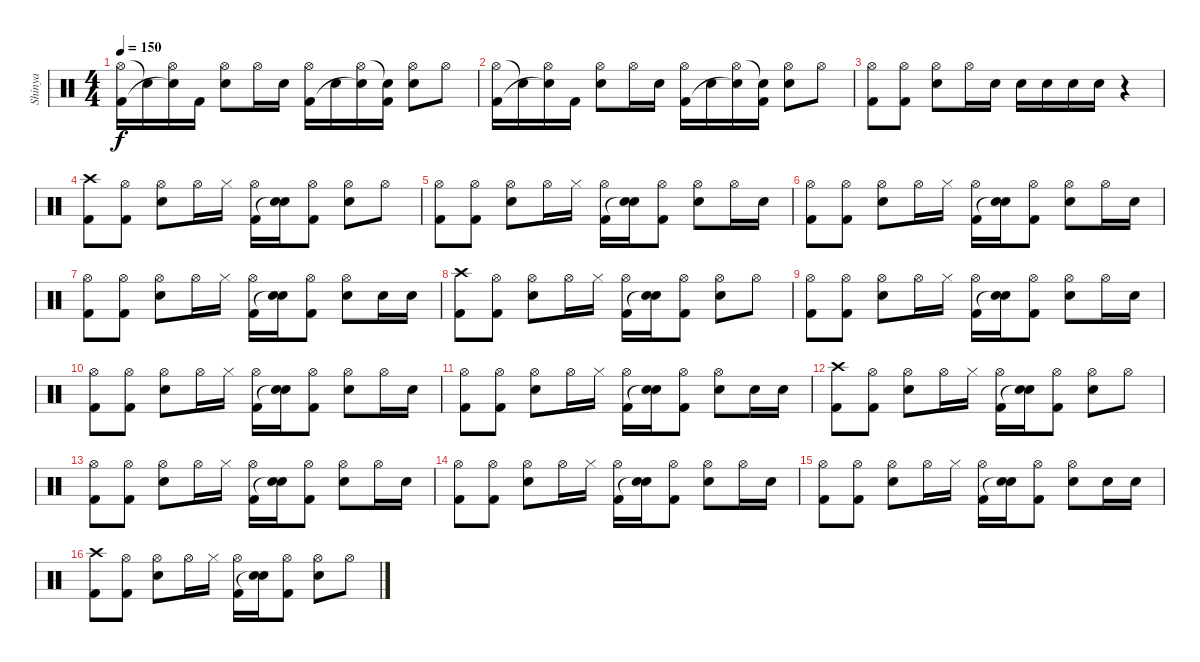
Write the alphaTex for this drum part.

\track ("Shinya" "Shinya") {instrument percussion}
\staff {score}
\articulation defaults
\ts (4 4)
\tempo 150
\clef neutral
\ks c
("Hi-Hat (open)" "Kick (hit) 2").16{dy f} "Snare (hit)"{t}.16 ("Hi-Hat (open)" "Snare (hit)"{t}).16 "Kick (hit) 2".16 ("Hi-Hat (open)" "Electric Snare (hit)").8 "Hi-Hat (open)".16 "Electric Snare (hit)".16 ("Hi-Hat (open)" "Kick (hit) 2").16 "Electric Snare (hit)".16 ("Hi-Hat (open)" "Snare (hit)"{t}).16 ("Snare (hit)"{t} "Kick (hit) 2").16 ("Hi-Hat (open)" "Electric Snare (hit)").8 "Hi-Hat (open)".8 |
("Hi-Hat (open)" "Kick (hit) 2").16 "Snare (hit)"{t}.16 ("Hi-Hat (open)" "Snare (hit)"{t}).16 "Kick (hit) 2".16 ("Hi-Hat (open)" "Electric Snare (hit)").8 "Hi-Hat (open)".16 "Electric Snare (hit)".16 ("Hi-Hat (open)" "Kick (hit) 2").16 "Electric Snare (hit)".16 ("Hi-Hat (open)" "Snare (hit)"{t}).16 ("Snare (hit)"{t} "Kick (hit) 2").16 ("Hi-Hat (open)" "Electric Snare (hit)").8 "Hi-Hat (open)".8 |
("Hi-Hat (open)" "Kick (hit) 2").8 ("Hi-Hat (open)" "Kick (hit) 2").8 ("Hi-Hat (open)" "Electric Snare (hit)").8 "Hi-Hat (open)".16 "Electric Snare (hit)".16 "Electric Snare (hit)".16 "Electric Snare (hit)".16 "Electric Snare (hit)".16 "Electric Snare (hit)".16 r.4 |
("Crash high (hit)" "Kick (hit) 2").8 ("Hi-Hat (open)" "Kick (hit) 2").8 ("Hi-Hat (open)" "Electric Snare (hit)").8 "Hi-Hat (open)".16 "Hi-Hat (closed)".16 ("Hi-Hat (open)" "Kick (hit) 2").16 ("Electric Snare (hit)" "Snare (hit)"{t}).16 ("Hi-Hat (open)" "Kick (hit) 2").8 ("Hi-Hat (open)" "Electric Snare (hit)").8 "Hi-Hat (open)".8 |
("Hi-Hat (open)" "Kick (hit) 2").8 ("Hi-Hat (open)" "Kick (hit) 2").8 ("Hi-Hat (open)" "Electric Snare (hit)").8 "Hi-Hat (open)".16 "Hi-Hat (closed)".16 ("Hi-Hat (open)" "Kick (hit) 2").16 ("Electric Snare (hit)" "Snare (hit)"{t}).16 ("Hi-Hat (open)" "Kick (hit) 2").8 ("Hi-Hat (open)" "Electric Snare (hit)").8 "Hi-Hat (open)".16 "Electric Snare (hit)".16 |
("Hi-Hat (open)" "Kick (hit) 2").8 ("Hi-Hat (open)" "Kick (hit) 2").8 ("Hi-Hat (open)" "Electric Snare (hit)").8 "Hi-Hat (open)".16 "Hi-Hat (closed)".16 ("Hi-Hat (open)" "Kick (hit) 2").16 ("Electric Snare (hit)" "Snare (hit)"{t}).16 ("Hi-Hat (open)" "Kick (hit) 2").8 ("Hi-Hat (open)" "Electric Snare (hit)").8 "Hi-Hat (open)".16 "Electric Snare (hit)".16 |
("Hi-Hat (open)" "Kick (hit) 2").8 ("Hi-Hat (open)" "Kick (hit) 2").8 ("Hi-Hat (open)" "Electric Snare (hit)").8 "Hi-Hat (open)".16 "Hi-Hat (closed)".16 ("Hi-Hat (open)" "Kick (hit) 2").16 ("Electric Snare (hit)" "Snare (hit)"{t}).16 ("Hi-Hat (open)" "Kick (hit) 2").8 ("Hi-Hat (open)" "Electric Snare (hit)").8 "Electric Snare (hit)".16 "Electric Snare (hit)".16 |
("Crash high (hit)" "Kick (hit) 2").8 ("Hi-Hat (open)" "Kick (hit) 2").8 ("Hi-Hat (open)" "Electric Snare (hit)").8 "Hi-Hat (open)".16 "Hi-Hat (closed)".16 ("Hi-Hat (open)" "Kick (hit) 2").16 ("Electric Snare (hit)" "Snare (hit)"{t}).16 ("Hi-Hat (open)" "Kick (hit) 2").8 ("Hi-Hat (open)" "Electric Snare (hit)").8 "Hi-Hat (open)".8 |
("Hi-Hat (open)" "Kick (hit) 2").8 ("Hi-Hat (open)" "Kick (hit) 2").8 ("Hi-Hat (open)" "Electric Snare (hit)").8 "Hi-Hat (open)".16 "Hi-Hat (closed)".16 ("Hi-Hat (open)" "Kick (hit) 2").16 ("Electric Snare (hit)" "Snare (hit)"{t}).16 ("Hi-Hat (open)" "Kick (hit) 2").8 ("Hi-Hat (open)" "Electric Snare (hit)").8 "Hi-Hat (open)".16 "Electric Snare (hit)".16 |
("Hi-Hat (open)" "Kick (hit) 2").8 ("Hi-Hat (open)" "Kick (hit) 2").8 ("Hi-Hat (open)" "Electric Snare (hit)").8 "Hi-Hat (open)".16 "Hi-Hat (closed)".16 ("Hi-Hat (open)" "Kick (hit) 2").16 ("Electric Snare (hit)" "Snare (hit)"{t}).16 ("Hi-Hat (open)" "Kick (hit) 2").8 ("Hi-Hat (open)" "Electric Snare (hit)").8 "Hi-Hat (open)".16 "Electric Snare (hit)".16 |
("Hi-Hat (open)" "Kick (hit) 2").8 ("Hi-Hat (open)" "Kick (hit) 2").8 ("Hi-Hat (open)" "Electric Snare (hit)").8 "Hi-Hat (open)".16 "Hi-Hat (closed)".16 ("Hi-Hat (open)" "Kick (hit) 2").16 ("Electric Snare (hit)" "Snare (hit)"{t}).16 ("Hi-Hat (open)" "Kick (hit) 2").8 ("Hi-Hat (open)" "Electric Snare (hit)").8 "Electric Snare (hit)".16 "Electric Snare (hit)".16 |
("Crash high (hit)" "Kick (hit) 2").8 ("Hi-Hat (open)" "Kick (hit) 2").8 ("Hi-Hat (open)" "Electric Snare (hit)").8 "Hi-Hat (open)".16 "Hi-Hat (closed)".16 ("Hi-Hat (open)" "Kick (hit) 2").16 ("Electric Snare (hit)" "Snare (hit)"{t}).16 ("Hi-Hat (open)" "Kick (hit) 2").8 ("Hi-Hat (open)" "Electric Snare (hit)").8 "Hi-Hat (open)".8 |
("Hi-Hat (open)" "Kick (hit) 2").8 ("Hi-Hat (open)" "Kick (hit) 2").8 ("Hi-Hat (open)" "Electric Snare (hit)").8 "Hi-Hat (open)".16 "Hi-Hat (closed)".16 ("Hi-Hat (open)" "Kick (hit) 2").16 ("Electric Snare (hit)" "Snare (hit)"{t}).16 ("Hi-Hat (open)" "Kick (hit) 2").8 ("Hi-Hat (open)" "Electric Snare (hit)").8 "Hi-Hat (open)".16 "Electric Snare (hit)".16 |
("Hi-Hat (open)" "Kick (hit) 2").8 ("Hi-Hat (open)" "Kick (hit) 2").8 ("Hi-Hat (open)" "Electric Snare (hit)").8 "Hi-Hat (open)".16 "Hi-Hat (closed)".16 ("Hi-Hat (open)" "Kick (hit) 2").16 ("Electric Snare (hit)" "Snare (hit)"{t}).16 ("Hi-Hat (open)" "Kick (hit) 2").8 ("Hi-Hat (open)" "Electric Snare (hit)").8 "Hi-Hat (open)".16 "Electric Snare (hit)".16 |
("Hi-Hat (open)" "Kick (hit) 2").8 ("Hi-Hat (open)" "Kick (hit) 2").8 ("Hi-Hat (open)" "Electric Snare (hit)").8 "Hi-Hat (open)".16 "Hi-Hat (closed)".16 ("Hi-Hat (open)" "Kick (hit) 2").16 ("Electric Snare (hit)" "Snare (hit)"{t}).16 ("Hi-Hat (open)" "Kick (hit) 2").8 ("Hi-Hat (open)" "Electric Snare (hit)").8 "Electric Snare (hit)".16 "Electric Snare (hit)".16 |
("Crash high (hit)" "Kick (hit) 2").8 ("Hi-Hat (open)" "Kick (hit) 2").8 ("Hi-Hat (open)" "Electric Snare (hit)").8 "Hi-Hat (open)".16 "Hi-Hat (closed)".16 ("Hi-Hat (open)" "Kick (hit) 2").16 ("Electric Snare (hit)" "Snare (hit)"{t}).16 ("Hi-Hat (open)" "Kick (hit) 2").8 ("Hi-Hat (open)" "Electric Snare (hit)").8 "Hi-Hat (open)".8
